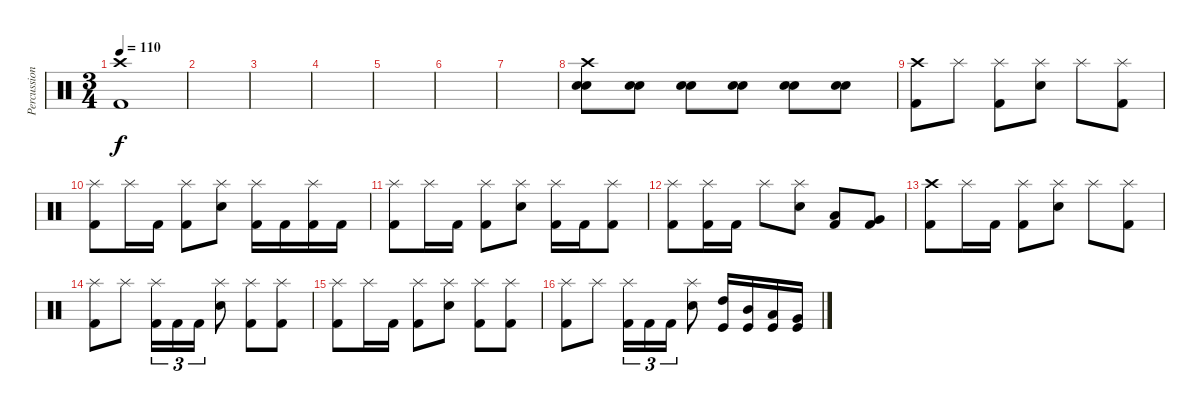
\track ("Percussion" "Percussion") {instrument percussion}
\staff {score}
\articulation defaults
\ts (3 4)
\tempo 110
\clef neutral
\ks c
("Crash high (hit)" "Kick (hit) 2").1{dy f} |
|
|
|
|
|
|
("Crash high (hit)" "Snare (hit) 2" "Electric Snare (hit)").8 ("Snare (hit) 2" "Electric Snare (hit)").8 ("Snare (hit) 2" "Electric Snare (hit)").8 ("Snare (hit) 2" "Electric Snare (hit)").8 ("Snare (hit) 2" "Electric Snare (hit)").8 ("Snare (hit) 2" "Electric Snare (hit)").8 |
("Crash high (hit)" "Kick (hit) 2").8 "Splash (hit)".8 ("Splash (hit)" "Kick (hit) 2").8 ("Splash (hit)" "Electric Snare (hit)").8 "Splash (hit)".8 ("Splash (hit)" "Kick (hit) 2").8 |
("Splash (hit)" "Kick (hit) 2").8 "Splash (hit)".16 "Kick (hit) 2".16 ("Splash (hit)" "Kick (hit) 2").8 ("Splash (hit)" "Electric Snare (hit)").8 ("Splash (hit)" "Kick (hit) 2").16 "Kick (hit) 2".16 ("Splash (hit)" "Kick (hit) 2").16 "Kick (hit) 2".16 |
("Splash (hit)" "Kick (hit) 2").8 "Splash (hit)".16 "Kick (hit) 2".16 ("Splash (hit)" "Kick (hit) 2").8 ("Splash (hit)" "Electric Snare (hit)").8 ("Splash (hit)" "Kick (hit) 2").16 "Kick (hit) 2".16 ("Splash (hit)" "Kick (hit) 2").8 |
("Splash (hit)" "Kick (hit) 2").8 ("Splash (hit)" "Kick (hit) 2").16 "Kick (hit) 2".16 "Splash (hit)".8 ("Splash (hit)" "Electric Snare (hit)").8 ("Low Tom (hit)" "Kick (hit) 2").8 ("Very Low Tom (hit)" "Kick (hit) 2").8 |
("Crash high (hit)" "Kick (hit) 2").8 "Splash (hit)".16 "Kick (hit) 2".16 ("Splash (hit)" "Kick (hit) 2").8 ("Splash (hit)" "Electric Snare (hit)").8 "Splash (hit)".8 ("Splash (hit)" "Kick (hit) 2").8 |
("Splash (hit)" "Kick (hit) 2").8 "Splash (hit)".8 ("Splash (hit)" "Kick (hit) 2").16{tu (3 2)} "Kick (hit) 2".16{tu (3 2)} "Kick (hit) 2".16{tu (3 2)} ("Splash (hit)" "Electric Snare (hit)").8 ("Splash (hit)" "Kick (hit) 2").8 ("Splash (hit)" "Kick (hit) 2").8 |
("Splash (hit)" "Kick (hit) 2").8 "Splash (hit)".16 "Kick (hit) 2".16 ("Splash (hit)" "Kick (hit) 2").8 ("Splash (hit)" "Electric Snare (hit)").8 ("Splash (hit)" "Kick (hit) 2").8 ("Splash (hit)" "Kick (hit) 2").8 |
("Splash (hit)" "Kick (hit) 2").8 "Splash (hit)".8 ("Splash (hit)" "Kick (hit) 2").16{tu (3 2)} "Kick (hit) 2".16{tu (3 2)} "Kick (hit) 2".16{tu (3 2)} ("Splash (hit)" "Electric Snare (hit)").8 ("High Tom (hit)" "Kick (hit)").16 ("Mid Tom (hit)" "Kick (hit)").16 ("Low Tom (hit)" "Kick (hit)").16 ("Very Low Tom (hit)" "Kick (hit)").16
